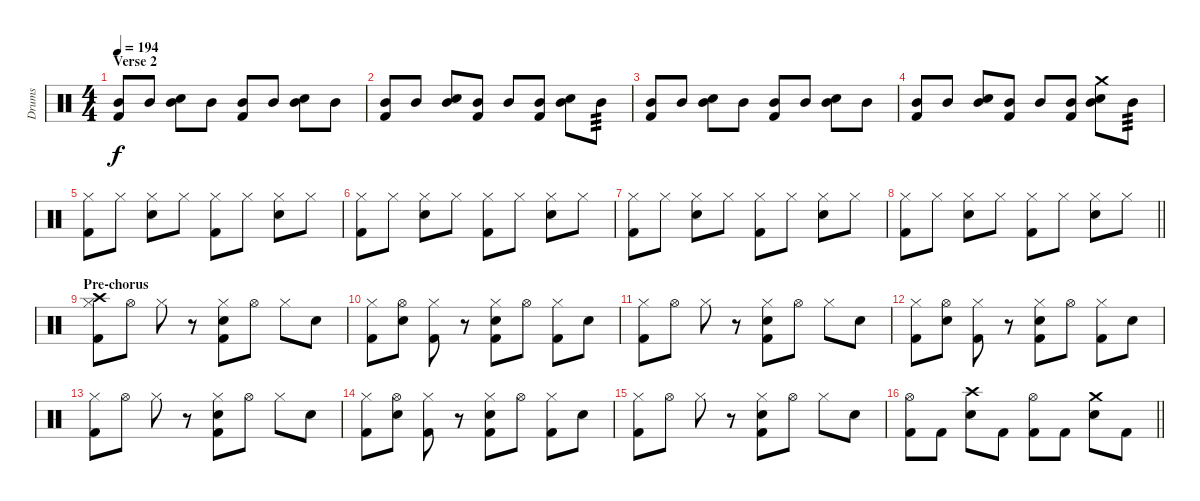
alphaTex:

\track ("Drums" "Drums") {instrument percussion}
\staff {score}
\articulation defaults
\ts (4 4)
\section ("" "Verse 2")
\tempo 194
\clef neutral
\ks c
("Mid Tom (hit)" "Kick (hit) 2").8{dy f} "Mid Tom (hit)".8 ("Mid Tom (hit)" "Snare (hit) 2").8 "Mid Tom (hit)".8 ("Mid Tom (hit)" "Kick (hit) 2").8 "Mid Tom (hit)".8 ("Mid Tom (hit)" "Snare (hit) 2").8 "Mid Tom (hit)".8 |
("Mid Tom (hit)" "Kick (hit) 2").8 "Mid Tom (hit)".8 ("Mid Tom (hit)" "Snare (hit) 2").8 ("Mid Tom (hit)" "Kick (hit) 2").8 "Mid Tom (hit)".8 ("Mid Tom (hit)" "Kick (hit) 2").8 ("Mid Tom (hit)" "Snare (hit) 2").8 "Mid Tom (hit)".8{tp 3} |
("Mid Tom (hit)" "Kick (hit) 2").8 "Mid Tom (hit)".8 ("Mid Tom (hit)" "Snare (hit) 2").8 "Mid Tom (hit)".8 ("Mid Tom (hit)" "Kick (hit) 2").8 "Mid Tom (hit)".8 ("Mid Tom (hit)" "Snare (hit) 2").8 "Mid Tom (hit)".8 |
("Mid Tom (hit)" "Kick (hit) 2").8 "Mid Tom (hit)".8 ("Mid Tom (hit)" "Snare (hit) 2").8 ("Mid Tom (hit)" "Kick (hit) 2").8 "Mid Tom (hit)".8 ("Mid Tom (hit)" "Kick (hit) 2").8 ("Mid Tom (hit)" "Crash medium (hit)" "Snare (hit) 2").8 "Mid Tom (hit)".8{tp 3} |
("Hi-Hat (closed)" "Kick (hit) 2").8 "Hi-Hat (closed)".8 ("Hi-Hat (closed)" "Snare (hit) 2").8 "Hi-Hat (closed)".8 ("Hi-Hat (closed)" "Kick (hit) 2").8 "Hi-Hat (closed)".8 ("Hi-Hat (closed)" "Snare (hit) 2").8 "Hi-Hat (closed)".8 |
("Hi-Hat (closed)" "Kick (hit) 2").8 "Hi-Hat (closed)".8 ("Hi-Hat (closed)" "Snare (hit) 2").8 "Hi-Hat (closed)".8 ("Hi-Hat (closed)" "Kick (hit) 2").8 "Hi-Hat (closed)".8 ("Hi-Hat (closed)" "Snare (hit) 2").8 "Hi-Hat (closed)".8 |
("Hi-Hat (closed)" "Kick (hit) 2").8 "Hi-Hat (closed)".8 ("Hi-Hat (closed)" "Snare (hit) 2").8 "Hi-Hat (closed)".8 ("Hi-Hat (closed)" "Kick (hit) 2").8 "Hi-Hat (closed)".8 ("Hi-Hat (closed)" "Snare (hit) 2").8 "Hi-Hat (closed)".8 |
\barLineRight lightlight
("Hi-Hat (closed)" "Kick (hit) 2").8 "Hi-Hat (closed)".8 ("Hi-Hat (closed)" "Snare (hit) 2").8 "Hi-Hat (closed)".8 ("Hi-Hat (closed)" "Kick (hit) 2").8 "Hi-Hat (closed)".8 ("Hi-Hat (closed)" "Snare (hit) 2").8 "Hi-Hat (closed)".8 |
\section ("" "Pre-chorus")
("Hi-Hat (closed)" "Crash high (hit)" "Kick (hit) 2").8 "Hi-Hat (open)".8 "Hi-Hat (closed)".8 r.8 ("Hi-Hat (closed)" "Snare (hit) 2" "Kick (hit) 2").8 "Hi-Hat (open)".8 "Hi-Hat (closed)".8 "Snare (hit) 2".8 |
("Hi-Hat (closed)" "Kick (hit) 2").8 ("Hi-Hat (open)" "Snare (hit) 2").8 ("Hi-Hat (closed)" "Kick (hit) 2").8 r.8 ("Hi-Hat (closed)" "Snare (hit) 2" "Kick (hit) 2").8 "Hi-Hat (open)".8 ("Hi-Hat (closed)" "Kick (hit) 2").8 "Snare (hit) 2".8 |
("Hi-Hat (closed)" "Kick (hit) 2").8 "Hi-Hat (open)".8 "Hi-Hat (closed)".8 r.8 ("Hi-Hat (closed)" "Snare (hit) 2" "Kick (hit) 2").8 "Hi-Hat (open)".8 "Hi-Hat (closed)".8 "Snare (hit) 2".8 |
("Hi-Hat (closed)" "Kick (hit) 2").8 ("Hi-Hat (open)" "Snare (hit) 2").8 ("Hi-Hat (closed)" "Kick (hit) 2").8 r.8 ("Hi-Hat (closed)" "Snare (hit) 2" "Kick (hit) 2").8 "Hi-Hat (open)".8 ("Hi-Hat (closed)" "Kick (hit) 2").8 "Snare (hit) 2".8 |
("Hi-Hat (closed)" "Kick (hit) 2").8 "Hi-Hat (open)".8 "Hi-Hat (closed)".8 r.8 ("Hi-Hat (closed)" "Snare (hit) 2" "Kick (hit) 2").8 "Hi-Hat (open)".8 "Hi-Hat (closed)".8 "Snare (hit) 2".8 |
("Hi-Hat (closed)" "Kick (hit) 2").8 ("Hi-Hat (open)" "Snare (hit) 2").8 ("Hi-Hat (closed)" "Kick (hit) 2").8 r.8 ("Hi-Hat (closed)" "Snare (hit) 2" "Kick (hit) 2").8 "Hi-Hat (open)".8 ("Hi-Hat (closed)" "Kick (hit) 2").8 "Snare (hit) 2".8 |
("Hi-Hat (closed)" "Kick (hit) 2").8 "Hi-Hat (open)".8 "Hi-Hat (closed)".8 r.8 ("Hi-Hat (closed)" "Snare (hit) 2" "Kick (hit) 2").8 "Hi-Hat (open)".8 "Hi-Hat (closed)".8 "Snare (hit) 2".8 |
\barLineRight lightlight
("Hi-Hat (open)" "Kick (hit) 2").8 "Kick (hit) 2".8 ("Crash high (hit)" "Snare (hit) 2").8 "Kick (hit) 2".8 ("Hi-Hat (open)" "Kick (hit) 2").8 "Kick (hit) 2".8 ("Crash medium (hit)" "Snare (hit) 2").8 "Kick (hit) 2".8
